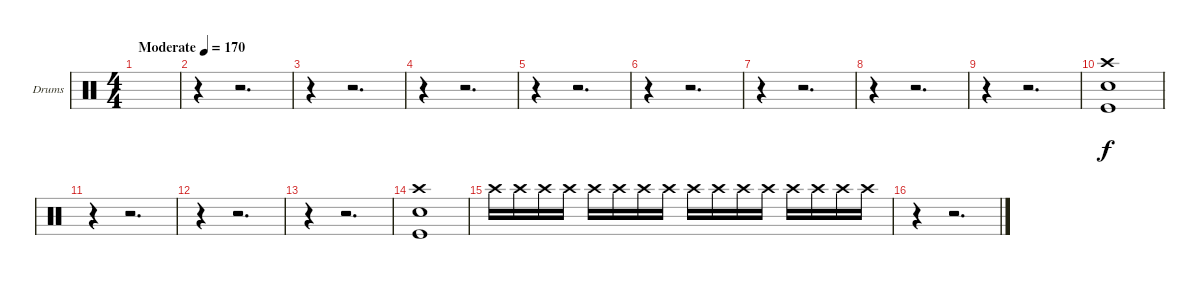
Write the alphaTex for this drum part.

\bracketExtendMode groupsimilarinstruments
\firstSystemTrackNameOrientation horizontal
\otherSystemsTrackNameOrientation horizontal
\track ("Drumkit" "Drums") {instrument percussion}
\staff {score}
\articulation defaults
\ts (4 4)
\tempo (170 "Moderate")
\clef neutral
\ks c
|
\beaming (8 2 2 2 2)
r.4 r.2{d} |
r.4 r.2{d} |
r.4 r.2{d} |
r.4 r.2{d} |
r.4 r.2{d} |
r.4 r.2{d} |
r.4 r.2{d} |
r.4 r.2{d} |
("Crash high (hit)" "Snare (hit) 2" "Kick (hit)").1 |
r.4 r.2{d} |
r.4 r.2{d} |
r.4 r.2{d} |
("Crash high (hit)" "Snare (hit) 2" "Kick (hit)").1 |
"Crash high (hit)".16 "Crash high (hit)".16 "Crash high (hit)".16 "Crash high (hit)".16 "Crash high (hit)".16 "Crash high (hit)".16 "Crash high (hit)".16 "Crash high (hit)".16 "Crash high (hit)".16 "Crash high (hit)".16 "Crash high (hit)".16 "Crash high (hit)".16 "Crash high (hit)".16 "Crash high (hit)".16 "Crash high (hit)".16 "Crash high (hit)".16 |
r.4 r.2{d}
